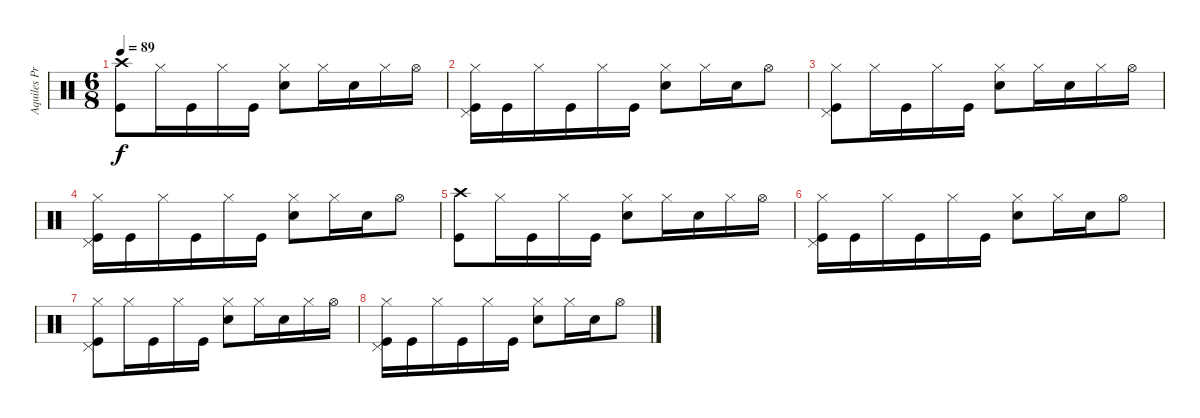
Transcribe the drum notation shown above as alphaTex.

\track ("Aquiles Priester" "Aquiles Pr") {instrument percussion}
\staff {score}
\articulation defaults
\ts (6 8)
\tempo 89
\clef neutral
\ks c
("Crash high (hit)" "Kick (hit)").8{dy f} "Hi-Hat (closed)".16 "Kick (hit)".16 "Hi-Hat (closed)".16 "Kick (hit)".16 ("Hi-Hat (closed)" "Electric Snare (hit)").8 "Hi-Hat (closed)".16 "Electric Snare (hit)".16 "Hi-Hat (closed)".16 "Hi-Hat (open)".16 |
("Hi-Hat (closed)" "Pedal Hi-Hat (hit)" "Kick (hit)").16{volume 7} "Kick (hit)".16 "Hi-Hat (closed)".16 "Kick (hit)".16 "Hi-Hat (closed)".16 "Kick (hit)".16 ("Hi-Hat (closed)" "Electric Snare (hit)").8 "Hi-Hat (closed)".16 "Electric Snare (hit)".16 "Hi-Hat (open)".8 |
("Hi-Hat (closed)" "Pedal Hi-Hat (hit)" "Kick (hit)").8 "Hi-Hat (closed)".16 "Kick (hit)".16 "Hi-Hat (closed)".16 "Kick (hit)".16 ("Hi-Hat (closed)" "Electric Snare (hit)").8 "Hi-Hat (closed)".16 "Electric Snare (hit)".16 "Hi-Hat (closed)".16 "Hi-Hat (open)".16 |
("Hi-Hat (closed)" "Pedal Hi-Hat (hit)" "Kick (hit)").16 "Kick (hit)".16 "Hi-Hat (closed)".16 "Kick (hit)".16 "Hi-Hat (closed)".16 "Kick (hit)".16 ("Hi-Hat (closed)" "Electric Snare (hit)").8 "Hi-Hat (closed)".16 "Electric Snare (hit)".16 "Hi-Hat (open)".8 |
("Crash high (hit)" "Kick (hit)").8 "Hi-Hat (closed)".16 "Kick (hit)".16 "Hi-Hat (closed)".16 "Kick (hit)".16 ("Hi-Hat (closed)" "Electric Snare (hit)").8 "Hi-Hat (closed)".16 "Electric Snare (hit)".16 "Hi-Hat (closed)".16 "Hi-Hat (open)".16 |
("Hi-Hat (closed)" "Pedal Hi-Hat (hit)" "Kick (hit)").16 "Kick (hit)".16 "Hi-Hat (closed)".16 "Kick (hit)".16 "Hi-Hat (closed)".16 "Kick (hit)".16 ("Hi-Hat (closed)" "Electric Snare (hit)").8 "Hi-Hat (closed)".16 "Electric Snare (hit)".16 "Hi-Hat (open)".8 |
("Hi-Hat (closed)" "Pedal Hi-Hat (hit)" "Kick (hit)").8{volume 0} "Hi-Hat (closed)".16 "Kick (hit)".16 "Hi-Hat (closed)".16 "Kick (hit)".16 ("Hi-Hat (closed)" "Electric Snare (hit)").8 "Hi-Hat (closed)".16 "Electric Snare (hit)".16 "Hi-Hat (closed)".16 "Hi-Hat (open)".16 |
("Hi-Hat (closed)" "Pedal Hi-Hat (hit)" "Kick (hit)").16 "Kick (hit)".16 "Hi-Hat (closed)".16 "Kick (hit)".16 "Hi-Hat (closed)".16 "Kick (hit)".16 ("Hi-Hat (closed)" "Electric Snare (hit)").8 "Hi-Hat (closed)".16 "Electric Snare (hit)".16 "Hi-Hat (open)".8
